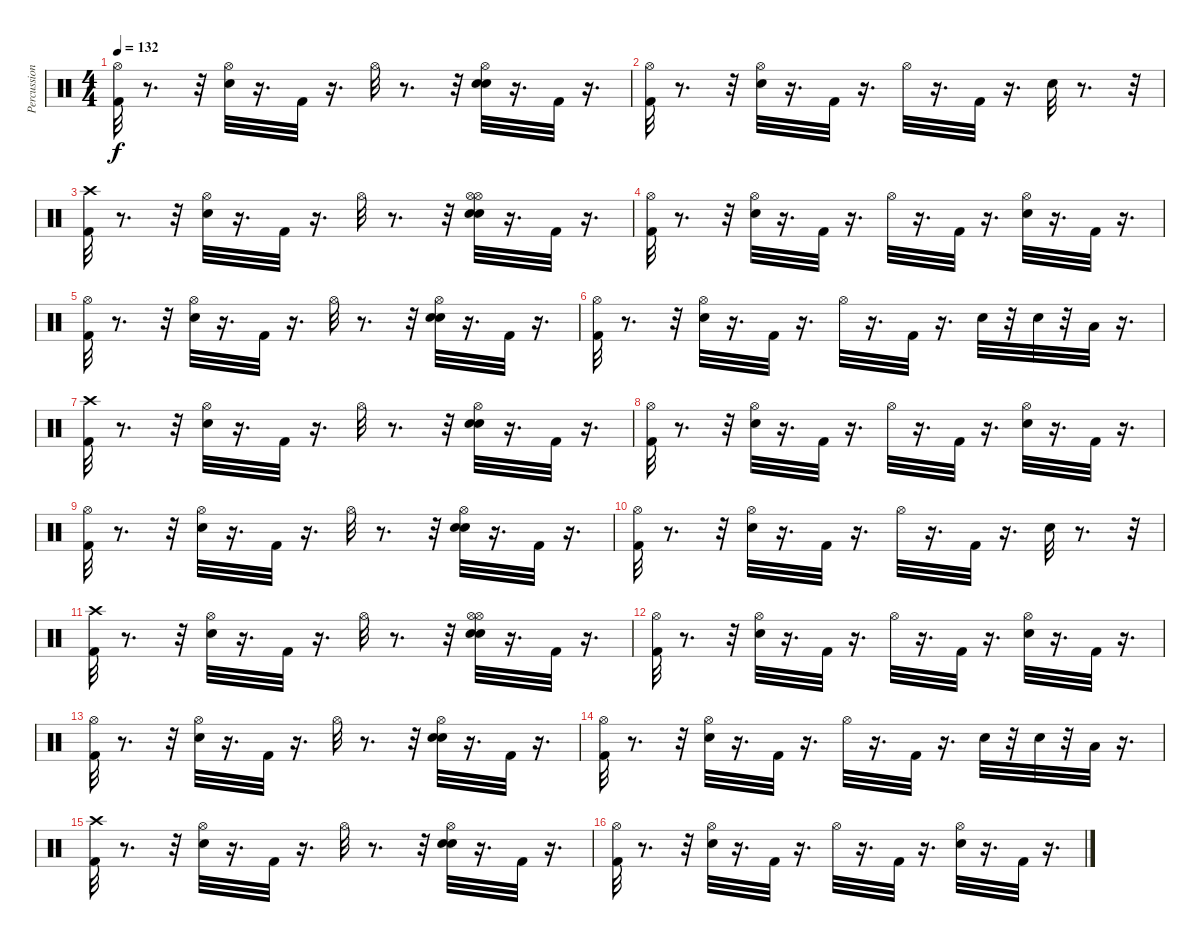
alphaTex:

\track ("Percussion" "Percussion") {instrument percussion}
\staff {score}
\articulation defaults
\ts (4 4)
\tempo 132
\clef neutral
\ks c
("Hi-Hat (open)" "Kick (hit) 2").32{dy f} r.8{d} r.32 ("Snare (hit) 2" "Hi-Hat (open)").32 r.16{d} "Kick (hit) 2".32 r.16{d} "Hi-Hat (open)".32 r.8{d} r.32 ("Snare (hit) 2" "Snare (hit) 2" "Hi-Hat (open)").32 r.16{d} "Kick (hit) 2".32 r.16{d} |
("Hi-Hat (open)" "Kick (hit) 2").32 r.8{d} r.32 ("Snare (hit) 2" "Hi-Hat (open)").32 r.16{d} "Kick (hit) 2".32 r.16{d} "Hi-Hat (open)".32 r.16{d} "Kick (hit) 2".32 r.16{d} "Snare (hit) 2".32 r.8{d} r.32 |
("Kick (hit) 2" "Crash high (hit)").32 r.8{d} r.32 ("Snare (hit) 2" "Hi-Hat (open)").32 r.16{d} "Kick (hit) 2".32 r.16{d} "Hi-Hat (open)".32 r.8{d} r.32 ("Snare (hit) 2" "Hi-Hat (open)" "Snare (hit) 2" "Hi-Hat (open)").32 r.16{d} "Kick (hit) 2".32 r.16{d} |
("Kick (hit) 2" "Hi-Hat (open)").32 r.8{d} r.32 ("Snare (hit) 2" "Hi-Hat (open)").32 r.16{d} "Kick (hit) 2".32 r.16{d} "Hi-Hat (open)".32 r.16{d} "Kick (hit) 2".32 r.16{d} ("Snare (hit) 2" "Hi-Hat (open)").32 r.16{d} "Kick (hit) 2".32 r.16{d} |
("Hi-Hat (open)" "Kick (hit) 2").32 r.8{d} r.32 ("Snare (hit) 2" "Hi-Hat (open)").32 r.16{d} "Kick (hit) 2".32 r.16{d} "Hi-Hat (open)".32 r.8{d} r.32 ("Snare (hit) 2" "Snare (hit) 2" "Hi-Hat (open)").32 r.16{d} "Kick (hit) 2".32 r.16{d} |
("Kick (hit) 2" "Hi-Hat (open)").32 r.8{d} r.32 ("Snare (hit) 2" "Hi-Hat (open)").32 r.16{d} "Kick (hit) 2".32 r.16{d} "Hi-Hat (open)".32 r.16{d} "Kick (hit) 2".32 r.16{d} "Snare (hit) 2".32 r.32 "Snare (hit) 2".32 r.32 "Low Floor Tom (hit)".32 r.16{d} |
("Kick (hit) 2" "Crash high (hit)").32 r.8{d} r.32 ("Snare (hit) 2" "Hi-Hat (open)").32 r.16{d} "Kick (hit) 2".32 r.16{d} "Hi-Hat (open)".32 r.8{d} r.32 ("Snare (hit) 2" "Snare (hit) 2" "Hi-Hat (open)").32 r.16{d} "Kick (hit) 2".32 r.16{d} |
("Kick (hit) 2" "Hi-Hat (open)").32 r.8{d} r.32 ("Snare (hit) 2" "Hi-Hat (open)").32 r.16{d} "Kick (hit) 2".32 r.16{d} "Hi-Hat (open)".32 r.16{d} "Kick (hit) 2".32 r.16{d} ("Hi-Hat (open)" "Snare (hit) 2").32 r.16{d} "Kick (hit) 2".32 r.16{d} |
("Hi-Hat (open)" "Kick (hit) 2").32 r.8{d} r.32 ("Snare (hit) 2" "Hi-Hat (open)").32 r.16{d} "Kick (hit) 2".32 r.16{d} "Hi-Hat (open)".32 r.8{d} r.32 ("Snare (hit) 2" "Hi-Hat (open)" "Snare (hit) 2").32 r.16{d} "Kick (hit) 2".32 r.16{d} |
("Hi-Hat (open)" "Kick (hit) 2").32 r.8{d} r.32 ("Snare (hit) 2" "Hi-Hat (open)").32 r.16{d} "Kick (hit) 2".32 r.16{d} "Hi-Hat (open)".32 r.16{d} "Kick (hit) 2".32 r.16{d} "Snare (hit) 2".32 r.8{d} r.32 |
("Kick (hit) 2" "Crash high (hit)").32 r.8{d} r.32 ("Snare (hit) 2" "Hi-Hat (open)").32 r.16{d} "Kick (hit) 2".32 r.16{d} "Hi-Hat (open)".32 r.8{d} r.32 ("Snare (hit) 2" "Hi-Hat (open)" "Snare (hit) 2" "Hi-Hat (open)").32 r.16{d} "Kick (hit) 2".32 r.16{d} |
("Kick (hit) 2" "Hi-Hat (open)").32 r.8{d} r.32 ("Snare (hit) 2" "Hi-Hat (open)").32 r.16{d} "Kick (hit) 2".32 r.16{d} "Hi-Hat (open)".32 r.16{d} "Kick (hit) 2".32 r.16{d} ("Snare (hit) 2" "Hi-Hat (open)").32 r.16{d} "Kick (hit) 2".32 r.16{d} |
("Hi-Hat (open)" "Kick (hit) 2").32 r.8{d} r.32 ("Snare (hit) 2" "Hi-Hat (open)").32 r.16{d} "Kick (hit) 2".32 r.16{d} "Hi-Hat (open)".32 r.8{d} r.32 ("Snare (hit) 2" "Hi-Hat (open)" "Snare (hit) 2").32 r.16{d} "Kick (hit) 2".32 r.16{d} |
("Kick (hit) 2" "Hi-Hat (open)").32 r.8{d} r.32 ("Snare (hit) 2" "Hi-Hat (open)").32 r.16{d} "Kick (hit) 2".32 r.16{d} "Hi-Hat (open)".32 r.16{d} "Kick (hit) 2".32 r.16{d} "Snare (hit) 2".32 r.32 "Snare (hit) 2".32 r.32 "Low Floor Tom (hit)".32 r.16{d} |
("Kick (hit) 2" "Crash high (hit)").32 r.8{d} r.32 ("Snare (hit) 2" "Hi-Hat (open)").32 r.16{d} "Kick (hit) 2".32 r.16{d} "Hi-Hat (open)".32 r.8{d} r.32 ("Snare (hit) 2" "Snare (hit) 2" "Hi-Hat (open)").32 r.16{d} "Kick (hit) 2".32 r.16{d} |
("Kick (hit) 2" "Hi-Hat (open)").32 r.8{d} r.32 ("Snare (hit) 2" "Hi-Hat (open)").32 r.16{d} "Kick (hit) 2".32 r.16{d} "Hi-Hat (open)".32 r.16{d} "Kick (hit) 2".32 r.16{d} ("Hi-Hat (open)" "Snare (hit) 2").32 r.16{d} "Kick (hit) 2".32 r.16{d}
